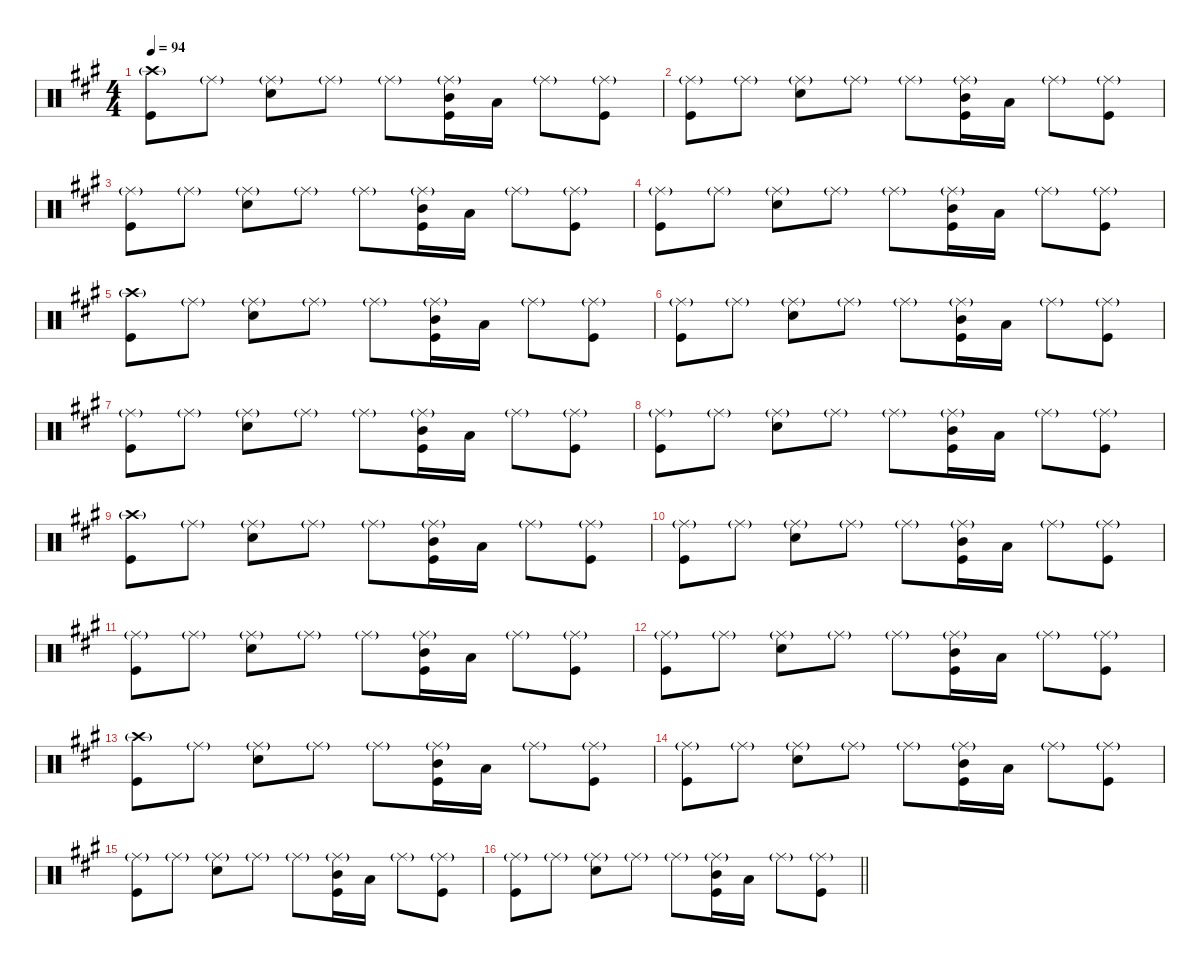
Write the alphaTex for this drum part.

\defaultSystemsLayout 4
\hideDynamics
\bracketExtendMode nobrackets
\singleTrackTrackNamePolicy hidden
\multiTrackTrackNamePolicy hidden
\firstSystemTrackNameMode fullname
\firstSystemTrackNameOrientation horizontal
\otherSystemsTrackNameOrientation horizontal
\track ("Percussion" "drm.") {defaultSystemsLayout 4 instrument percussion}
\staff {score}
\articulation defaults
\ts (4 4)
\tempo 94
\clef neutral
\ks a
("Crash high (hit)"{g acc forcenatural} "Kick (hit)"{acc forcenatural}).8{dy f beam Down} "Ride (middle)"{g acc forcenatural}.8{dy mf beam Down} ("Ride (middle)"{g acc forcenatural} "Snare (hit) 2"{acc forcenatural}).8{dy f beam Down} "Ride (middle)"{g acc forcenatural}.8{dy mf beam Down} "Ride (middle)"{g acc forcenatural}.8{beam Down} ("Ride (middle)"{g acc forcenatural} "Mid Tom (hit)"{acc forcenatural} "Kick (hit)"{acc forcenatural}).16{dy mp beam Down} "Low Tom (hit)"{acc forcenatural}.16{beam Down} "Ride (middle)"{g acc forcenatural}.8{dy mf beam Down} ("Ride (middle)"{g acc forcenatural} "Kick (hit)"{acc forcenatural}).8{dy f beam Down} |
("Ride (middle)"{g acc forcenatural} "Kick (hit)"{acc forcenatural}).8{beam Down} "Ride (middle)"{g acc forcenatural}.8{dy mf beam Down} ("Ride (middle)"{g acc forcenatural} "Snare (hit) 2"{acc forcenatural}).8{dy f beam Down} "Ride (middle)"{g acc forcenatural}.8{dy mf beam Down} "Ride (middle)"{g acc forcenatural}.8{beam Down} ("Ride (middle)"{g acc forcenatural} "Mid Tom (hit)"{acc forcenatural} "Kick (hit)"{acc forcenatural}).16{dy mp beam Down} "Low Tom (hit)"{acc forcenatural}.16{beam Down} "Ride (middle)"{g acc forcenatural}.8{dy mf beam Down} ("Ride (middle)"{g acc forcenatural} "Kick (hit)"{acc forcenatural}).8{dy f beam Down} |
("Ride (middle)"{g acc forcenatural} "Kick (hit)"{acc forcenatural}).8{beam Down} "Ride (middle)"{g acc forcenatural}.8{dy mf beam Down} ("Ride (middle)"{g acc forcenatural} "Snare (hit) 2"{acc forcenatural}).8{dy f beam Down} "Ride (middle)"{g acc forcenatural}.8{dy mf beam Down} "Ride (middle)"{g acc forcenatural}.8{beam Down} ("Ride (middle)"{g acc forcenatural} "Mid Tom (hit)"{acc forcenatural} "Kick (hit)"{acc forcenatural}).16{dy mp beam Down} "Low Tom (hit)"{acc forcenatural}.16{beam Down} "Ride (middle)"{g acc forcenatural}.8{dy mf beam Down} ("Ride (middle)"{g acc forcenatural} "Kick (hit)"{acc forcenatural}).8{dy f beam Down} |
("Ride (middle)"{g acc forcenatural} "Kick (hit)"{acc forcenatural}).8{beam Down} "Ride (middle)"{g acc forcenatural}.8{dy mf beam Down} ("Ride (middle)"{g acc forcenatural} "Snare (hit) 2"{acc forcenatural}).8{dy f beam Down} "Ride (middle)"{g acc forcenatural}.8{dy mf beam Down} "Ride (middle)"{g acc forcenatural}.8{beam Down} ("Ride (middle)"{g acc forcenatural} "Mid Tom (hit)"{acc forcenatural} "Kick (hit)"{acc forcenatural}).16{dy mp beam Down} "Low Tom (hit)"{acc forcenatural}.16{beam Down} "Ride (middle)"{g acc forcenatural}.8{dy mf beam Down} ("Ride (middle)"{g acc forcenatural} "Kick (hit)"{acc forcenatural}).8{dy f beam Down} |
("Crash high (hit)"{g acc forcenatural} "Kick (hit)"{acc forcenatural}).8{beam Down} "Ride (middle)"{g acc forcenatural}.8{dy mf beam Down} ("Ride (middle)"{g acc forcenatural} "Snare (hit) 2"{acc forcenatural}).8{dy f beam Down} "Ride (middle)"{g acc forcenatural}.8{dy mf beam Down} "Ride (middle)"{g acc forcenatural}.8{beam Down} ("Ride (middle)"{g acc forcenatural} "Mid Tom (hit)"{acc forcenatural} "Kick (hit)"{acc forcenatural}).16{dy mp beam Down} "Low Tom (hit)"{acc forcenatural}.16{beam Down} "Ride (middle)"{g acc forcenatural}.8{dy mf beam Down} ("Ride (middle)"{g acc forcenatural} "Kick (hit)"{acc forcenatural}).8{dy f beam Down} |
("Ride (middle)"{g acc forcenatural} "Kick (hit)"{acc forcenatural}).8{beam Down} "Ride (middle)"{g acc forcenatural}.8{dy mf beam Down} ("Ride (middle)"{g acc forcenatural} "Snare (hit) 2"{acc forcenatural}).8{dy f beam Down} "Ride (middle)"{g acc forcenatural}.8{dy mf beam Down} "Ride (middle)"{g acc forcenatural}.8{beam Down} ("Ride (middle)"{g acc forcenatural} "Mid Tom (hit)"{acc forcenatural} "Kick (hit)"{acc forcenatural}).16{dy mp beam Down} "Low Tom (hit)"{acc forcenatural}.16{beam Down} "Ride (middle)"{g acc forcenatural}.8{dy mf beam Down} ("Ride (middle)"{g acc forcenatural} "Kick (hit)"{acc forcenatural}).8{dy f beam Down} |
("Ride (middle)"{g acc forcenatural} "Kick (hit)"{acc forcenatural}).8{beam Down} "Ride (middle)"{g acc forcenatural}.8{dy mf beam Down} ("Ride (middle)"{g acc forcenatural} "Snare (hit) 2"{acc forcenatural}).8{dy f beam Down} "Ride (middle)"{g acc forcenatural}.8{dy mf beam Down} "Ride (middle)"{g acc forcenatural}.8{beam Down} ("Ride (middle)"{g acc forcenatural} "Mid Tom (hit)"{acc forcenatural} "Kick (hit)"{acc forcenatural}).16{dy mp beam Down} "Low Tom (hit)"{acc forcenatural}.16{beam Down} "Ride (middle)"{g acc forcenatural}.8{dy mf beam Down} ("Ride (middle)"{g acc forcenatural} "Kick (hit)"{acc forcenatural}).8{dy f beam Down} |
("Ride (middle)"{g acc forcenatural} "Kick (hit)"{acc forcenatural}).8{beam Down} "Ride (middle)"{g acc forcenatural}.8{dy mf beam Down} ("Ride (middle)"{g acc forcenatural} "Snare (hit) 2"{acc forcenatural}).8{dy f beam Down} "Ride (middle)"{g acc forcenatural}.8{dy mf beam Down} "Ride (middle)"{g acc forcenatural}.8{beam Down} ("Ride (middle)"{g acc forcenatural} "Mid Tom (hit)"{acc forcenatural} "Kick (hit)"{acc forcenatural}).16{dy mp beam Down} "Low Tom (hit)"{acc forcenatural}.16{beam Down} "Ride (middle)"{g acc forcenatural}.8{dy mf beam Down} ("Ride (middle)"{g acc forcenatural} "Kick (hit)"{acc forcenatural}).8{dy f beam Down} |
("Crash high (hit)"{g acc forcenatural} "Kick (hit)"{acc forcenatural}).8{beam Down} "Ride (middle)"{g acc forcenatural}.8{dy mf beam Down} ("Ride (middle)"{g acc forcenatural} "Snare (hit) 2"{acc forcenatural}).8{dy f beam Down} "Ride (middle)"{g acc forcenatural}.8{dy mf beam Down} "Ride (middle)"{g acc forcenatural}.8{beam Down} ("Ride (middle)"{g acc forcenatural} "Mid Tom (hit)"{acc forcenatural} "Kick (hit)"{acc forcenatural}).16{dy mp beam Down} "Low Tom (hit)"{acc forcenatural}.16{beam Down} "Ride (middle)"{g acc forcenatural}.8{dy mf beam Down} ("Ride (middle)"{g acc forcenatural} "Kick (hit)"{acc forcenatural}).8{dy f beam Down} |
("Ride (middle)"{g acc forcenatural} "Kick (hit)"{acc forcenatural}).8{beam Down} "Ride (middle)"{g acc forcenatural}.8{dy mf beam Down} ("Ride (middle)"{g acc forcenatural} "Snare (hit) 2"{acc forcenatural}).8{dy f beam Down} "Ride (middle)"{g acc forcenatural}.8{dy mf beam Down} "Ride (middle)"{g acc forcenatural}.8{beam Down} ("Ride (middle)"{g acc forcenatural} "Mid Tom (hit)"{acc forcenatural} "Kick (hit)"{acc forcenatural}).16{dy mp beam Down} "Low Tom (hit)"{acc forcenatural}.16{beam Down} "Ride (middle)"{g acc forcenatural}.8{dy mf beam Down} ("Ride (middle)"{g acc forcenatural} "Kick (hit)"{acc forcenatural}).8{dy f beam Down} |
("Ride (middle)"{g acc forcenatural} "Kick (hit)"{acc forcenatural}).8{beam Down} "Ride (middle)"{g acc forcenatural}.8{dy mf beam Down} ("Ride (middle)"{g acc forcenatural} "Snare (hit) 2"{acc forcenatural}).8{dy f beam Down} "Ride (middle)"{g acc forcenatural}.8{dy mf beam Down} "Ride (middle)"{g acc forcenatural}.8{beam Down} ("Ride (middle)"{g acc forcenatural} "Mid Tom (hit)"{acc forcenatural} "Kick (hit)"{acc forcenatural}).16{dy mp beam Down} "Low Tom (hit)"{acc forcenatural}.16{beam Down} "Ride (middle)"{g acc forcenatural}.8{dy mf beam Down} ("Ride (middle)"{g acc forcenatural} "Kick (hit)"{acc forcenatural}).8{dy f beam Down} |
("Ride (middle)"{g acc forcenatural} "Kick (hit)"{acc forcenatural}).8{beam Down} "Ride (middle)"{g acc forcenatural}.8{dy mf beam Down} ("Ride (middle)"{g acc forcenatural} "Snare (hit) 2"{acc forcenatural}).8{dy f beam Down} "Ride (middle)"{g acc forcenatural}.8{dy mf beam Down} "Ride (middle)"{g acc forcenatural}.8{beam Down} ("Ride (middle)"{g acc forcenatural} "Mid Tom (hit)"{acc forcenatural} "Kick (hit)"{acc forcenatural}).16{dy mp beam Down} "Low Tom (hit)"{acc forcenatural}.16{beam Down} "Ride (middle)"{g acc forcenatural}.8{dy mf beam Down} ("Ride (middle)"{g acc forcenatural} "Kick (hit)"{acc forcenatural}).8{dy f beam Down} |
("Crash high (hit)"{g acc forcenatural} "Kick (hit)"{acc forcenatural}).8{beam Down} "Ride (middle)"{g acc forcenatural}.8{dy mf beam Down} ("Ride (middle)"{g acc forcenatural} "Snare (hit) 2"{acc forcenatural}).8{dy f beam Down} "Ride (middle)"{g acc forcenatural}.8{dy mf beam Down} "Ride (middle)"{g acc forcenatural}.8{beam Down} ("Ride (middle)"{g acc forcenatural} "Mid Tom (hit)"{acc forcenatural} "Kick (hit)"{acc forcenatural}).16{dy mp beam Down} "Low Tom (hit)"{acc forcenatural}.16{beam Down} "Ride (middle)"{g acc forcenatural}.8{dy mf beam Down} ("Ride (middle)"{g acc forcenatural} "Kick (hit)"{acc forcenatural}).8{dy f beam Down} |
("Ride (middle)"{g acc forcenatural} "Kick (hit)"{acc forcenatural}).8{beam Down} "Ride (middle)"{g acc forcenatural}.8{dy mf beam Down} ("Ride (middle)"{g acc forcenatural} "Snare (hit) 2"{acc forcenatural}).8{dy f beam Down} "Ride (middle)"{g acc forcenatural}.8{dy mf beam Down} "Ride (middle)"{g acc forcenatural}.8{beam Down} ("Ride (middle)"{g acc forcenatural} "Mid Tom (hit)"{acc forcenatural} "Kick (hit)"{acc forcenatural}).16{dy mp beam Down} "Low Tom (hit)"{acc forcenatural}.16{beam Down} "Ride (middle)"{g acc forcenatural}.8{dy mf beam Down} ("Ride (middle)"{g acc forcenatural} "Kick (hit)"{acc forcenatural}).8{dy f beam Down} |
("Ride (middle)"{g acc forcenatural} "Kick (hit)"{acc forcenatural}).8{beam Down} "Ride (middle)"{g acc forcenatural}.8{dy mf beam Down} ("Ride (middle)"{g acc forcenatural} "Snare (hit) 2"{acc forcenatural}).8{dy f beam Down} "Ride (middle)"{g acc forcenatural}.8{dy mf beam Down} "Ride (middle)"{g acc forcenatural}.8{beam Down} ("Ride (middle)"{g acc forcenatural} "Mid Tom (hit)"{acc forcenatural} "Kick (hit)"{acc forcenatural}).16{dy mp beam Down} "Low Tom (hit)"{acc forcenatural}.16{beam Down} "Ride (middle)"{g acc forcenatural}.8{dy mf beam Down} ("Ride (middle)"{g acc forcenatural} "Kick (hit)"{acc forcenatural}).8{dy f beam Down} |
\barLineRight lightlight
("Ride (middle)"{g acc forcenatural} "Kick (hit)"{acc forcenatural}).8{beam Down} "Ride (middle)"{g acc forcenatural}.8{dy mf beam Down} ("Ride (middle)"{g acc forcenatural} "Snare (hit) 2"{acc forcenatural}).8{dy f beam Down} "Ride (middle)"{g acc forcenatural}.8{dy mf beam Down} "Ride (middle)"{g acc forcenatural}.8{beam Down} ("Ride (middle)"{g acc forcenatural} "Mid Tom (hit)"{acc forcenatural} "Kick (hit)"{acc forcenatural}).16{dy mp beam Down} "Low Tom (hit)"{acc forcenatural}.16{beam Down} "Ride (middle)"{g acc forcenatural}.8{dy mf beam Down} ("Ride (middle)"{g acc forcenatural} "Kick (hit)"{acc forcenatural}).8{dy f beam Down}
